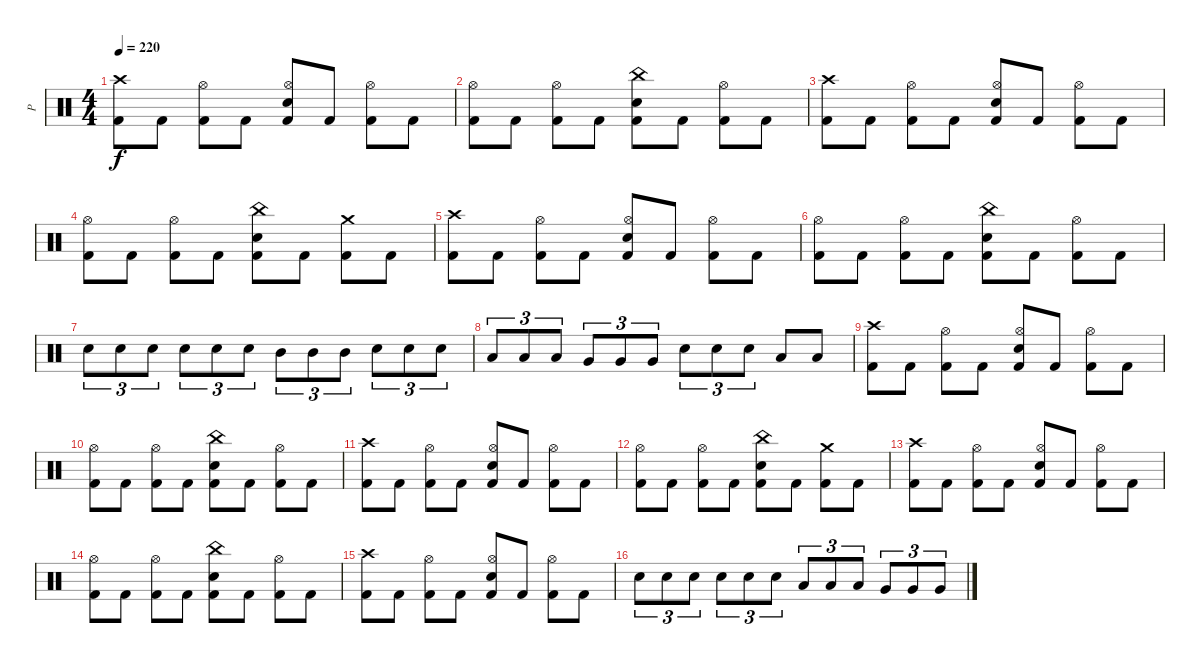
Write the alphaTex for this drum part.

\track ("P" "P") {instrument percussion}
\staff {score}
\articulation defaults
\ts (4 4)
\tempo 220
\clef neutral
\ks c
("Crash high (hit)" "Kick (hit) 2").8{dy f} "Kick (hit) 2".8 ("Hi-Hat (open)" "Kick (hit) 2").8 "Kick (hit) 2".8 ("Hi-Hat (open)" "Electric Snare (hit)" "Kick (hit) 2").8 "Kick (hit) 2".8 ("Hi-Hat (open)" "Kick (hit) 2").8 "Kick (hit) 2".8 |
("Hi-Hat (open)" "Kick (hit) 2").8 "Kick (hit) 2".8 ("Hi-Hat (open)" "Kick (hit) 2").8 "Kick (hit) 2".8 ("China (hit)" "Electric Snare (hit)" "Kick (hit) 2").8 "Kick (hit) 2".8 ("Hi-Hat (open)" "Kick (hit) 2").8 "Kick (hit) 2".8 |
("Crash high (hit)" "Kick (hit) 2").8 "Kick (hit) 2".8 ("Hi-Hat (open)" "Kick (hit) 2").8 "Kick (hit) 2".8 ("Hi-Hat (open)" "Electric Snare (hit)" "Kick (hit) 2").8 "Kick (hit) 2".8 ("Hi-Hat (open)" "Kick (hit) 2").8 "Kick (hit) 2".8 |
("Hi-Hat (open)" "Kick (hit) 2").8 "Kick (hit) 2".8 ("Hi-Hat (open)" "Kick (hit) 2").8 "Kick (hit) 2".8 ("China (hit)" "Electric Snare (hit)" "Kick (hit) 2").8 "Kick (hit) 2".8 ("Crash medium (hit)" "Kick (hit) 2").8 "Kick (hit) 2".8 |
("Crash high (hit)" "Kick (hit) 2").8 "Kick (hit) 2".8 ("Hi-Hat (open)" "Kick (hit) 2").8 "Kick (hit) 2".8 ("Hi-Hat (open)" "Electric Snare (hit)" "Kick (hit) 2").8 "Kick (hit) 2".8 ("Hi-Hat (open)" "Kick (hit) 2").8 "Kick (hit) 2".8 |
("Hi-Hat (open)" "Kick (hit) 2").8 "Kick (hit) 2".8 ("Hi-Hat (open)" "Kick (hit) 2").8 "Kick (hit) 2".8 ("China (hit)" "Electric Snare (hit)" "Kick (hit) 2").8 "Kick (hit) 2".8 ("Hi-Hat (open)" "Kick (hit) 2").8 "Kick (hit) 2".8 |
"Electric Snare (hit)".8{tu (3 2)} "Electric Snare (hit)".8{tu (3 2)} "Electric Snare (hit)".8{tu (3 2)} "Electric Snare (hit)".8{tu (3 2)} "Electric Snare (hit)".8{tu (3 2)} "Electric Snare (hit)".8{tu (3 2)} "Mid Tom (hit)".8{tu (3 2)} "Mid Tom (hit)".8{tu (3 2)} "Mid Tom (hit)".8{tu (3 2)} "Electric Snare (hit)".8{tu (3 2)} "Electric Snare (hit)".8{tu (3 2)} "Electric Snare (hit)".8{tu (3 2)} |
"Low Tom (hit)".8{tu (3 2)} "Low Tom (hit)".8{tu (3 2)} "Low Tom (hit)".8{tu (3 2)} "Very Low Tom (hit)".8{tu (3 2)} "Very Low Tom (hit)".8{tu (3 2)} "Very Low Tom (hit)".8{tu (3 2)} "Electric Snare (hit)".8{tu (3 2)} "Electric Snare (hit)".8{tu (3 2)} "Electric Snare (hit)".8{tu (3 2)} "Low Tom (hit)".8 "Low Tom (hit)".8 |
("Crash high (hit)" "Kick (hit) 2").8 "Kick (hit) 2".8 ("Hi-Hat (open)" "Kick (hit) 2").8 "Kick (hit) 2".8 ("Hi-Hat (open)" "Electric Snare (hit)" "Kick (hit) 2").8 "Kick (hit) 2".8 ("Hi-Hat (open)" "Kick (hit) 2").8 "Kick (hit) 2".8 |
("Hi-Hat (open)" "Kick (hit) 2").8 "Kick (hit) 2".8 ("Hi-Hat (open)" "Kick (hit) 2").8 "Kick (hit) 2".8 ("China (hit)" "Electric Snare (hit)" "Kick (hit) 2").8 "Kick (hit) 2".8 ("Hi-Hat (open)" "Kick (hit) 2").8 "Kick (hit) 2".8 |
("Crash high (hit)" "Kick (hit) 2").8 "Kick (hit) 2".8 ("Hi-Hat (open)" "Kick (hit) 2").8 "Kick (hit) 2".8 ("Hi-Hat (open)" "Electric Snare (hit)" "Kick (hit) 2").8 "Kick (hit) 2".8 ("Hi-Hat (open)" "Kick (hit) 2").8 "Kick (hit) 2".8 |
("Hi-Hat (open)" "Kick (hit) 2").8 "Kick (hit) 2".8 ("Hi-Hat (open)" "Kick (hit) 2").8 "Kick (hit) 2".8 ("China (hit)" "Electric Snare (hit)" "Kick (hit) 2").8 "Kick (hit) 2".8 ("Crash medium (hit)" "Kick (hit) 2").8 "Kick (hit) 2".8 |
("Crash high (hit)" "Kick (hit) 2").8 "Kick (hit) 2".8 ("Hi-Hat (open)" "Kick (hit) 2").8 "Kick (hit) 2".8 ("Hi-Hat (open)" "Electric Snare (hit)" "Kick (hit) 2").8 "Kick (hit) 2".8 ("Hi-Hat (open)" "Kick (hit) 2").8 "Kick (hit) 2".8 |
("Hi-Hat (open)" "Kick (hit) 2").8 "Kick (hit) 2".8 ("Hi-Hat (open)" "Kick (hit) 2").8 "Kick (hit) 2".8 ("China (hit)" "Electric Snare (hit)" "Kick (hit) 2").8 "Kick (hit) 2".8 ("Hi-Hat (open)" "Kick (hit) 2").8 "Kick (hit) 2".8 |
("Crash high (hit)" "Kick (hit) 2").8 "Kick (hit) 2".8 ("Hi-Hat (open)" "Kick (hit) 2").8 "Kick (hit) 2".8 ("Hi-Hat (open)" "Electric Snare (hit)" "Kick (hit) 2").8 "Kick (hit) 2".8 ("Hi-Hat (open)" "Kick (hit) 2").8 "Kick (hit) 2".8 |
"Electric Snare (hit)".8{tu (3 2)} "Electric Snare (hit)".8{tu (3 2)} "Electric Snare (hit)".8{tu (3 2)} "Electric Snare (hit)".8{tu (3 2)} "Electric Snare (hit)".8{tu (3 2)} "Electric Snare (hit)".8{tu (3 2)} "Low Tom (hit)".8{tu (3 2)} "Low Tom (hit)".8{tu (3 2)} "Low Tom (hit)".8{tu (3 2)} "Very Low Tom (hit)".8{tu (3 2)} "Very Low Tom (hit)".8{tu (3 2)} "Very Low Tom (hit)".8{tu (3 2)}
